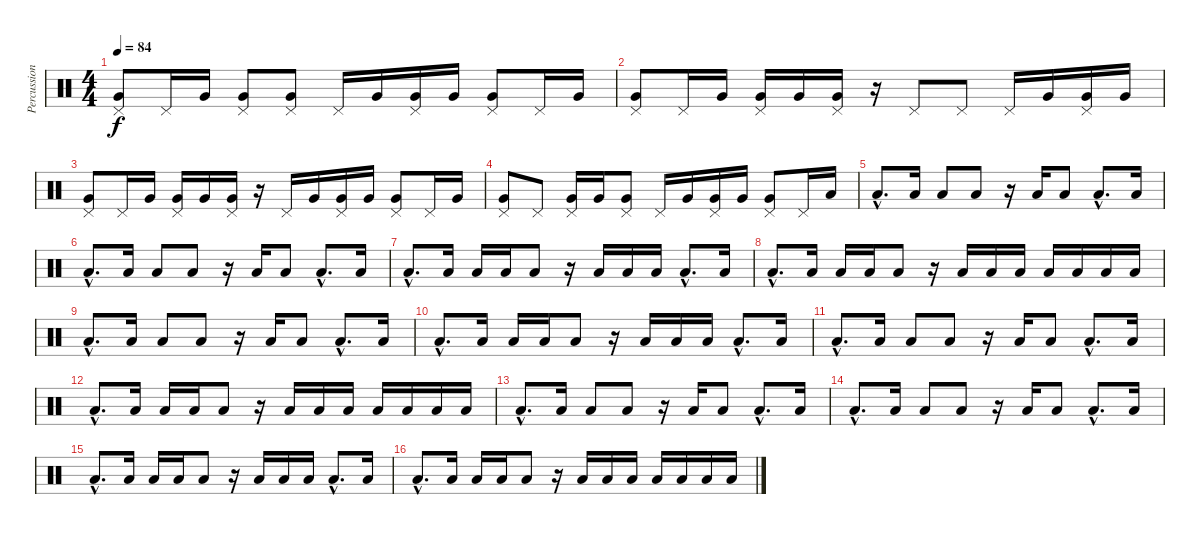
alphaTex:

\track ("Percussion" "Percussion") {instrument percussion}
\staff {score}
\articulation defaults
\ts (4 4)
\tempo 84
\clef neutral
\ks c
("Pedal Hi-Hat (hit)" "Very Low Tom (hit)").8{dy f} "Pedal Hi-Hat (hit)".16 "Very Low Tom (hit)".16 ("Pedal Hi-Hat (hit)" "Very Low Tom (hit)").8 ("Pedal Hi-Hat (hit)" "Very Low Tom (hit)").8 "Pedal Hi-Hat (hit)".16 "Very Low Tom (hit)".16 ("Pedal Hi-Hat (hit)" "Very Low Tom (hit)").16 "Very Low Tom (hit)".16 ("Pedal Hi-Hat (hit)" "Very Low Tom (hit)").8 "Pedal Hi-Hat (hit)".16 "Very Low Tom (hit)".16 |
("Pedal Hi-Hat (hit)" "Very Low Tom (hit)").8 "Pedal Hi-Hat (hit)".16 "Very Low Tom (hit)".16 ("Pedal Hi-Hat (hit)" "Very Low Tom (hit)").16 "Very Low Tom (hit)".16 ("Pedal Hi-Hat (hit)" "Very Low Tom (hit)").16 r.16 "Pedal Hi-Hat (hit)".8 "Pedal Hi-Hat (hit)".8 "Pedal Hi-Hat (hit)".16 "Very Low Tom (hit)".16 ("Pedal Hi-Hat (hit)" "Very Low Tom (hit)").16 "Very Low Tom (hit)".16 |
("Pedal Hi-Hat (hit)" "Very Low Tom (hit)").8 "Pedal Hi-Hat (hit)".16 "Very Low Tom (hit)".16 ("Pedal Hi-Hat (hit)" "Very Low Tom (hit)").16 "Very Low Tom (hit)".16 ("Pedal Hi-Hat (hit)" "Very Low Tom (hit)").16 r.16 "Pedal Hi-Hat (hit)".16 "Very Low Tom (hit)".16 ("Pedal Hi-Hat (hit)" "Very Low Tom (hit)").16 "Very Low Tom (hit)".16 ("Pedal Hi-Hat (hit)" "Very Low Tom (hit)").8 "Pedal Hi-Hat (hit)".16 "Very Low Tom (hit)".16 |
("Pedal Hi-Hat (hit)" "Very Low Tom (hit)").8 "Pedal Hi-Hat (hit)".8 ("Pedal Hi-Hat (hit)" "Very Low Tom (hit)").16 "Very Low Tom (hit)".16 ("Pedal Hi-Hat (hit)" "Very Low Tom (hit)").8 "Pedal Hi-Hat (hit)".16 "Very Low Tom (hit)".16 ("Pedal Hi-Hat (hit)" "Very Low Tom (hit)").16 "Very Low Tom (hit)".16 ("Pedal Hi-Hat (hit)" "Very Low Tom (hit)").8 "Pedal Hi-Hat (hit)".16 "Low Floor Tom (hit)".16 |
"Low Floor Tom (hit)"{hac}.8{d} "Low Floor Tom (hit)".16 "Low Floor Tom (hit)".8 "Low Floor Tom (hit)".8 r.16 "Low Floor Tom (hit)".16 "Low Floor Tom (hit)".8 "Low Floor Tom (hit)"{hac}.8{d} "Low Floor Tom (hit)".16 |
"Low Floor Tom (hit)"{hac}.8{d} "Low Floor Tom (hit)".16 "Low Floor Tom (hit)".8 "Low Floor Tom (hit)".8 r.16 "Low Floor Tom (hit)".16 "Low Floor Tom (hit)".8 "Low Floor Tom (hit)"{hac}.8{d} "Low Floor Tom (hit)".16 |
"Low Floor Tom (hit)"{hac}.8{d} "Low Floor Tom (hit)".16 "Low Floor Tom (hit)".16 "Low Floor Tom (hit)".16 "Low Floor Tom (hit)".8 r.16 "Low Floor Tom (hit)".16 "Low Floor Tom (hit)".16 "Low Floor Tom (hit)".16 "Low Floor Tom (hit)"{hac}.8{d} "Low Floor Tom (hit)".16 |
"Low Floor Tom (hit)"{hac}.8{d} "Low Floor Tom (hit)".16 "Low Floor Tom (hit)".16 "Low Floor Tom (hit)".16 "Low Floor Tom (hit)".8 r.16 "Low Floor Tom (hit)".16 "Low Floor Tom (hit)".16 "Low Floor Tom (hit)".16 "Low Floor Tom (hit)".16 "Low Floor Tom (hit)".16 "Low Floor Tom (hit)".16 "Low Floor Tom (hit)".16 |
"Low Floor Tom (hit)"{hac}.8{d} "Low Floor Tom (hit)".16 "Low Floor Tom (hit)".8 "Low Floor Tom (hit)".8 r.16 "Low Floor Tom (hit)".16 "Low Floor Tom (hit)".8 "Low Floor Tom (hit)"{hac}.8{d} "Low Floor Tom (hit)".16 |
"Low Floor Tom (hit)"{hac}.8{d} "Low Floor Tom (hit)".16 "Low Floor Tom (hit)".16 "Low Floor Tom (hit)".16 "Low Floor Tom (hit)".8 r.16 "Low Floor Tom (hit)".16 "Low Floor Tom (hit)".16 "Low Floor Tom (hit)".16 "Low Floor Tom (hit)"{hac}.8{d} "Low Floor Tom (hit)".16 |
"Low Floor Tom (hit)"{hac}.8{d} "Low Floor Tom (hit)".16 "Low Floor Tom (hit)".8 "Low Floor Tom (hit)".8 r.16 "Low Floor Tom (hit)".16 "Low Floor Tom (hit)".8 "Low Floor Tom (hit)"{hac}.8{d} "Low Floor Tom (hit)".16 |
"Low Floor Tom (hit)"{hac}.8{d} "Low Floor Tom (hit)".16 "Low Floor Tom (hit)".16 "Low Floor Tom (hit)".16 "Low Floor Tom (hit)".8 r.16 "Low Floor Tom (hit)".16 "Low Floor Tom (hit)".16 "Low Floor Tom (hit)".16 "Low Floor Tom (hit)".16 "Low Floor Tom (hit)".16 "Low Floor Tom (hit)".16 "Low Floor Tom (hit)".16 |
"Low Floor Tom (hit)"{hac}.8{d} "Low Floor Tom (hit)".16 "Low Floor Tom (hit)".8 "Low Floor Tom (hit)".8 r.16 "Low Floor Tom (hit)".16 "Low Floor Tom (hit)".8 "Low Floor Tom (hit)"{hac}.8{d} "Low Floor Tom (hit)".16 |
"Low Floor Tom (hit)"{hac}.8{d} "Low Floor Tom (hit)".16 "Low Floor Tom (hit)".8 "Low Floor Tom (hit)".8 r.16 "Low Floor Tom (hit)".16 "Low Floor Tom (hit)".8 "Low Floor Tom (hit)"{hac}.8{d} "Low Floor Tom (hit)".16 |
"Low Floor Tom (hit)"{hac}.8{d} "Low Floor Tom (hit)".16 "Low Floor Tom (hit)".16 "Low Floor Tom (hit)".16 "Low Floor Tom (hit)".8 r.16 "Low Floor Tom (hit)".16 "Low Floor Tom (hit)".16 "Low Floor Tom (hit)".16 "Low Floor Tom (hit)"{hac}.8{d} "Low Floor Tom (hit)".16 |
"Low Floor Tom (hit)"{hac}.8{d} "Low Floor Tom (hit)".16 "Low Floor Tom (hit)".16 "Low Floor Tom (hit)".16 "Low Floor Tom (hit)".8 r.16 "Low Floor Tom (hit)".16 "Low Floor Tom (hit)".16 "Low Floor Tom (hit)".16 "Low Floor Tom (hit)".16 "Low Floor Tom (hit)".16 "Low Floor Tom (hit)".16 "Low Floor Tom (hit)".16
